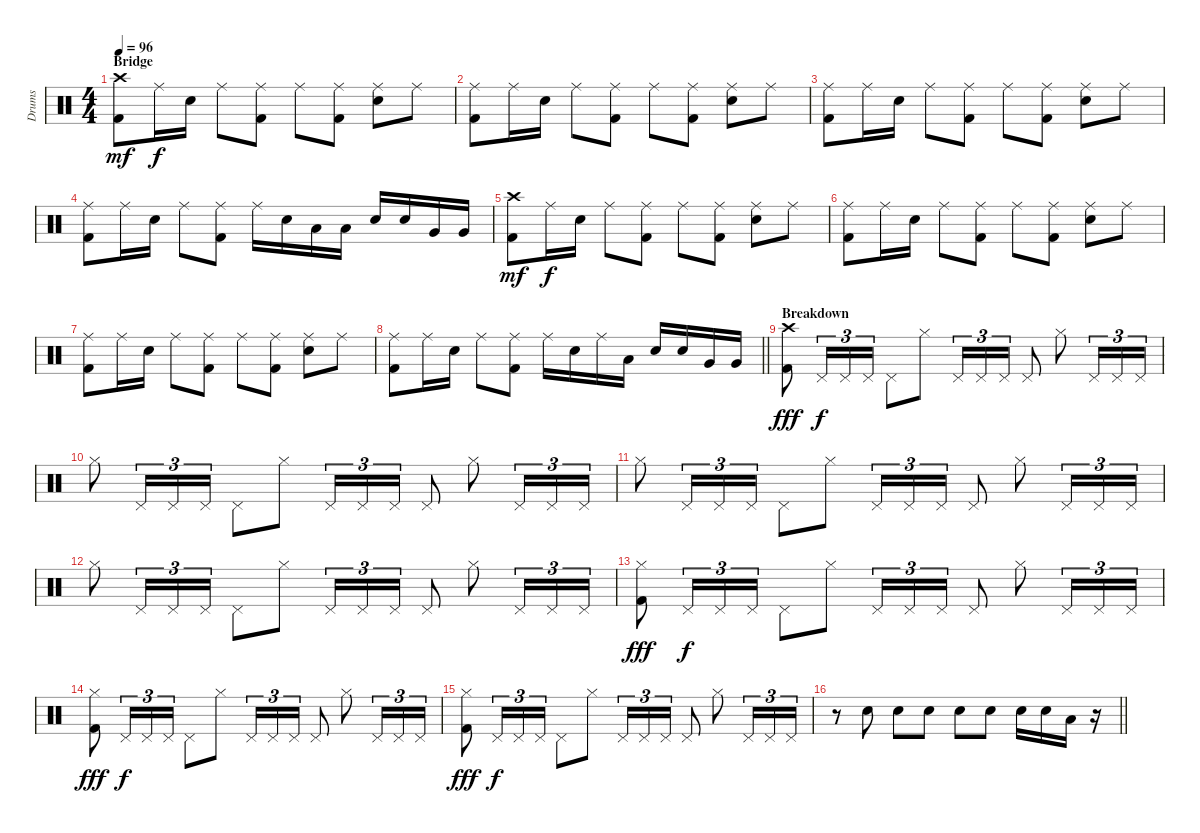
\track ("Drums" "Drums") {instrument percussion}
\staff {score}
\articulation defaults
\ts (4 4)
\section ("" "Bridge")
\tempo 96
\clef neutral
\ks c
("Crash high (hit)" "Kick (hit) 2").8{dy mf} "Ride (middle)".16{dy f} "Snare (hit) 2".16 "Ride (middle)".8 ("Ride (middle)" "Kick (hit) 2").8 "Ride (middle)".8 ("Ride (middle)" "Kick (hit) 2").8 ("Ride (middle)" "Snare (hit) 2").8 "Ride (middle)".8 |
("Ride (middle)" "Kick (hit) 2").8 "Ride (middle)".16 "Snare (hit) 2".16 "Ride (middle)".8 ("Ride (middle)" "Kick (hit) 2").8 "Ride (middle)".8 ("Ride (middle)" "Kick (hit) 2").8 ("Ride (middle)" "Snare (hit) 2").8 "Ride (middle)".8 |
("Ride (middle)" "Kick (hit) 2").8 "Ride (middle)".16 "Snare (hit) 2".16 "Ride (middle)".8 ("Ride (middle)" "Kick (hit) 2").8 "Ride (middle)".8 ("Ride (middle)" "Kick (hit) 2").8 ("Ride (middle)" "Snare (hit) 2").8 "Ride (middle)".8 |
("Ride (middle)" "Kick (hit) 2").8 "Ride (middle)".16 "Snare (hit) 2".16 "Ride (middle)".8 ("Ride (middle)" "Kick (hit) 2").8 "Ride (middle)".16 "Snare (hit) 2".16 "Low Tom (hit)".16 "Low Tom (hit)".16 "Snare (hit) 2".16 "Snare (hit) 2".16 "Very Low Tom (hit)".16 "Very Low Tom (hit)".16 |
("Crash high (hit)" "Kick (hit) 2").8{dy mf} "Ride (middle)".16{dy f} "Snare (hit) 2".16 "Ride (middle)".8 ("Ride (middle)" "Kick (hit) 2").8 "Ride (middle)".8 ("Ride (middle)" "Kick (hit) 2").8 ("Ride (middle)" "Snare (hit) 2").8 "Ride (middle)".8 |
("Ride (middle)" "Kick (hit) 2").8 "Ride (middle)".16 "Snare (hit) 2".16 "Ride (middle)".8 ("Ride (middle)" "Kick (hit) 2").8 "Ride (middle)".8 ("Ride (middle)" "Kick (hit) 2").8 ("Ride (middle)" "Snare (hit) 2").8 "Ride (middle)".8 |
("Ride (middle)" "Kick (hit) 2").8 "Ride (middle)".16 "Snare (hit) 2".16 "Ride (middle)".8 ("Ride (middle)" "Kick (hit) 2").8 "Ride (middle)".8 ("Ride (middle)" "Kick (hit) 2").8 ("Ride (middle)" "Snare (hit) 2").8 "Ride (middle)".8 |
\barLineRight lightlight
("Ride (middle)" "Kick (hit) 2").8 "Ride (middle)".16 "Snare (hit) 2".16 "Ride (middle)".8 ("Ride (middle)" "Kick (hit) 2").8 "Ride (middle)".16 "Snare (hit) 2".16 "Ride (middle)".16 "Low Tom (hit)".16 "Snare (hit) 2".16 "Snare (hit) 2".16 "Very Low Tom (hit)".16 "Very Low Tom (hit)".16 |
\section ("" "Breakdown")
("Crash high (hit)" "Kick (hit) 2").8{dy fff} "Pedal Hi-Hat (hit)".16{tu (3 2) dy f} "Pedal Hi-Hat (hit)".16{tu (3 2)} "Pedal Hi-Hat (hit)".16{tu (3 2)} "Pedal Hi-Hat (hit)".8 "Hi-Hat (closed)".8 "Pedal Hi-Hat (hit)".16{tu (3 2)} "Pedal Hi-Hat (hit)".16{tu (3 2)} "Pedal Hi-Hat (hit)".16{tu (3 2)} "Pedal Hi-Hat (hit)".8 "Hi-Hat (closed)".8 "Pedal Hi-Hat (hit)".16{tu (3 2)} "Pedal Hi-Hat (hit)".16{tu (3 2)} "Pedal Hi-Hat (hit)".16{tu (3 2)} |
"Hi-Hat (closed)".8 "Pedal Hi-Hat (hit)".16{tu (3 2)} "Pedal Hi-Hat (hit)".16{tu (3 2)} "Pedal Hi-Hat (hit)".16{tu (3 2)} "Pedal Hi-Hat (hit)".8 "Hi-Hat (closed)".8 "Pedal Hi-Hat (hit)".16{tu (3 2)} "Pedal Hi-Hat (hit)".16{tu (3 2)} "Pedal Hi-Hat (hit)".16{tu (3 2)} "Pedal Hi-Hat (hit)".8 "Hi-Hat (closed)".8 "Pedal Hi-Hat (hit)".16{tu (3 2)} "Pedal Hi-Hat (hit)".16{tu (3 2)} "Pedal Hi-Hat (hit)".16{tu (3 2)} |
"Hi-Hat (closed)".8 "Pedal Hi-Hat (hit)".16{tu (3 2)} "Pedal Hi-Hat (hit)".16{tu (3 2)} "Pedal Hi-Hat (hit)".16{tu (3 2)} "Pedal Hi-Hat (hit)".8 "Hi-Hat (closed)".8 "Pedal Hi-Hat (hit)".16{tu (3 2)} "Pedal Hi-Hat (hit)".16{tu (3 2)} "Pedal Hi-Hat (hit)".16{tu (3 2)} "Pedal Hi-Hat (hit)".8 "Hi-Hat (closed)".8 "Pedal Hi-Hat (hit)".16{tu (3 2)} "Pedal Hi-Hat (hit)".16{tu (3 2)} "Pedal Hi-Hat (hit)".16{tu (3 2)} |
"Hi-Hat (closed)".8 "Pedal Hi-Hat (hit)".16{tu (3 2)} "Pedal Hi-Hat (hit)".16{tu (3 2)} "Pedal Hi-Hat (hit)".16{tu (3 2)} "Pedal Hi-Hat (hit)".8 "Hi-Hat (closed)".8 "Pedal Hi-Hat (hit)".16{tu (3 2)} "Pedal Hi-Hat (hit)".16{tu (3 2)} "Pedal Hi-Hat (hit)".16{tu (3 2)} "Pedal Hi-Hat (hit)".8 "Hi-Hat (closed)".8 "Pedal Hi-Hat (hit)".16{tu (3 2)} "Pedal Hi-Hat (hit)".16{tu (3 2)} "Pedal Hi-Hat (hit)".16{tu (3 2)} |
("Hi-Hat (closed)" "Kick (hit) 2").8{dy fff} "Pedal Hi-Hat (hit)".16{tu (3 2) dy f} "Pedal Hi-Hat (hit)".16{tu (3 2)} "Pedal Hi-Hat (hit)".16{tu (3 2)} "Pedal Hi-Hat (hit)".8 "Hi-Hat (closed)".8 "Pedal Hi-Hat (hit)".16{tu (3 2)} "Pedal Hi-Hat (hit)".16{tu (3 2)} "Pedal Hi-Hat (hit)".16{tu (3 2)} "Pedal Hi-Hat (hit)".8 "Hi-Hat (closed)".8 "Pedal Hi-Hat (hit)".16{tu (3 2)} "Pedal Hi-Hat (hit)".16{tu (3 2)} "Pedal Hi-Hat (hit)".16{tu (3 2)} |
("Hi-Hat (closed)" "Kick (hit) 2").8{dy fff} "Pedal Hi-Hat (hit)".16{tu (3 2) dy f} "Pedal Hi-Hat (hit)".16{tu (3 2)} "Pedal Hi-Hat (hit)".16{tu (3 2)} "Pedal Hi-Hat (hit)".8 "Hi-Hat (closed)".8 "Pedal Hi-Hat (hit)".16{tu (3 2)} "Pedal Hi-Hat (hit)".16{tu (3 2)} "Pedal Hi-Hat (hit)".16{tu (3 2)} "Pedal Hi-Hat (hit)".8 "Hi-Hat (closed)".8 "Pedal Hi-Hat (hit)".16{tu (3 2)} "Pedal Hi-Hat (hit)".16{tu (3 2)} "Pedal Hi-Hat (hit)".16{tu (3 2)} |
("Hi-Hat (closed)" "Kick (hit) 2").8{dy fff} "Pedal Hi-Hat (hit)".16{tu (3 2) dy f} "Pedal Hi-Hat (hit)".16{tu (3 2)} "Pedal Hi-Hat (hit)".16{tu (3 2)} "Pedal Hi-Hat (hit)".8 "Hi-Hat (closed)".8 "Pedal Hi-Hat (hit)".16{tu (3 2)} "Pedal Hi-Hat (hit)".16{tu (3 2)} "Pedal Hi-Hat (hit)".16{tu (3 2)} "Pedal Hi-Hat (hit)".8 "Hi-Hat (closed)".8 "Pedal Hi-Hat (hit)".16{tu (3 2)} "Pedal Hi-Hat (hit)".16{tu (3 2)} "Pedal Hi-Hat (hit)".16{tu (3 2)} |
\barLineRight lightlight
r.8{volume 0} "Snare (hit) 2".8{volume 6} "Snare (hit) 2".8 "Snare (hit) 2".8 "Snare (hit) 2".8 "Snare (hit) 2".8 "Snare (hit) 2".16 "Snare (hit) 2".16 "Low Tom (hit)".16 r.16
